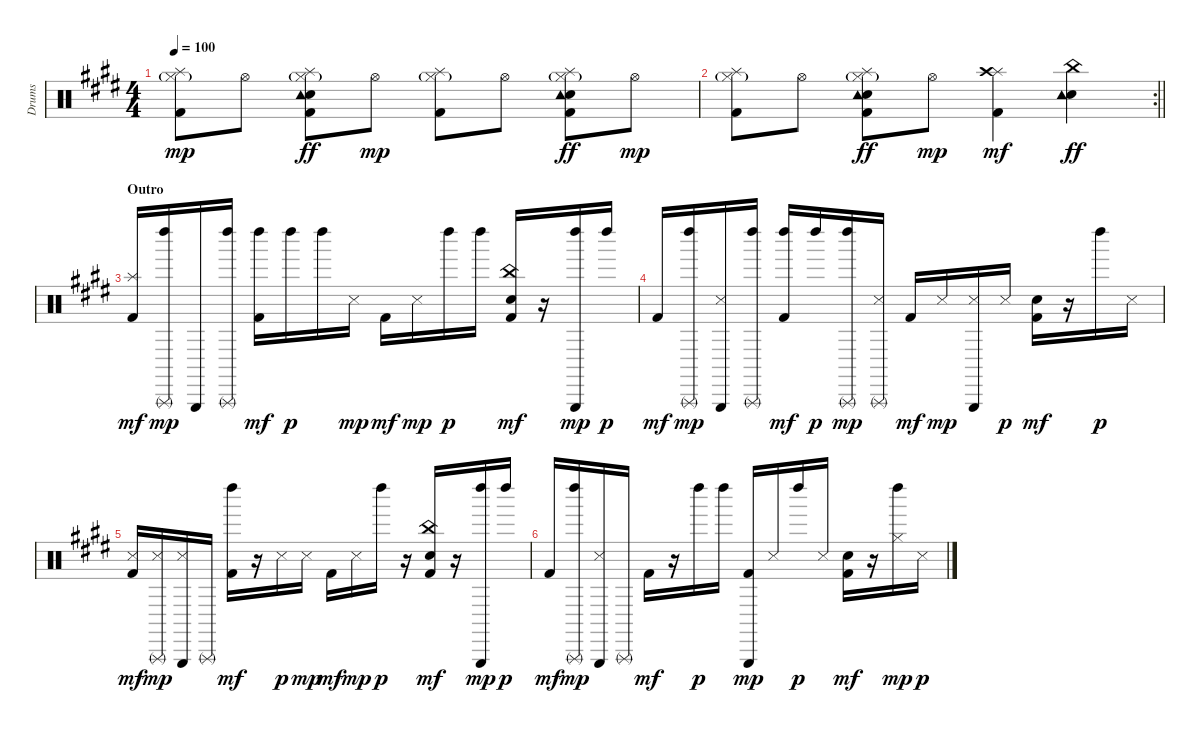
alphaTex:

\track ("Drums" "Drums") {instrument percussion}
\staff {score}
\articulation defaults
\ts (4 4)
\tempo 100
\clef neutral
\ks e
("Splash (hit)" "Hi-Hat (closed)"{g} "Kick (hit) 2").8{dy mp} "Hi-Hat (open)".8 ("Splash (hit)" "Hi-Hat (closed)"{g} "Hand Clap (hit)" "Kick (hit) 2" "Tambourine (hit)").8{dy ff} "Hi-Hat (open)".8{dy mp} ("Splash (hit)" "Hi-Hat (closed)"{g} "Kick (hit) 2").8 "Hi-Hat (open)".8 ("Splash (hit)" "Hi-Hat (closed)"{g} "Hand Clap (hit)" "Kick (hit) 2" "Tambourine (hit)").8{dy ff} "Hi-Hat (open)".8{dy mp} |
\rc 2
\barLineRight lightlight
("Splash (hit)" "Hi-Hat (closed)"{g} "Kick (hit) 2").8 "Hi-Hat (open)".8 ("Splash (hit)" "Hi-Hat (closed)"{g} "Hand Clap (hit)" "Kick (hit) 2" "Tambourine (hit)").8{dy ff} "Hi-Hat (open)".8{dy mp} ("Splash (hit)" "Crash high (hit)" "Kick (hit) 2").4{dy mf} ("China (hit)" "Hand Clap (hit)" "Tambourine (hit)").4{dy ff} |
\section ("" "Outro")
("Splash (hit)" "Kick (hit) 2").16{dy mf} ("Left Maraca (hit)" "Triangle (rnute)").16{dy mp} "Triangle (hit)".16 ("Left Maraca (hit)" "Triangle (rnute)").16 ("Left Maraca (hit)" "Kick (hit) 2").16{dy mf} "Left Maraca (hit)".16{dy p} "Left Maraca (hit)".16 "Metronome (hit)".16{dy mp} "Kick (hit) 2".16{dy mf} "Metronome (hit)".16{dy mp} "Left Maraca (hit)".16{dy p} "Left Maraca (hit)".16 ("China (hit)" "Hand Clap (hit)" "Kick (hit) 2").16{dy mf} r.16 ("Left Maraca (hit)" "Triangle (hit)").16{dy mp} "Left Maraca (hit)".16{dy p} |
"Kick (hit) 2".16{dy mf} ("Left Maraca (hit)" "Triangle (rnute)").16{dy mp} ("Metronome (hit)" "Triangle (hit)").16 ("Left Maraca (hit)" "Triangle (rnute)").16 ("Left Maraca (hit)" "Kick (hit) 2").16{dy mf} "Left Maraca (hit)".16{dy p} ("Left Maraca (hit)" "Triangle (rnute)").16{dy mp} ("Metronome (hit)" "Triangle (rnute)").16 "Kick (hit) 2".16{dy mf} "Metronome (hit)".16{dy mp} ("Metronome (hit)" "Triangle (hit)").16 "Metronome (hit)".16{dy p} ("Hand Clap (hit)" "Kick (hit) 2").16{dy mf} r.16 "Left Maraca (hit)".16{dy p} "Metronome (hit)".16 |
("Metronome (hit)" "Kick (hit) 2").16{dy mf} ("Metronome (hit)" "Triangle (rnute)").16{dy mp} ("Metronome (hit)" "Triangle (hit)").16 "Triangle (rnute)".16 ("Left Maraca (hit)" "Kick (hit) 2").16{dy mf} r.16 "Metronome (hit)".16{dy p} "Metronome (hit)".16{dy mp} "Kick (hit) 2".16{dy mf} "Metronome (hit)".16{dy mp} "Left Maraca (hit)".16{dy p} r.16 ("China (hit)" "Hand Clap (hit)" "Kick (hit) 2").16{dy mf} r.16 ("Left Maraca (hit)" "Triangle (hit)").16{dy mp} "Left Maraca (hit)".16{dy p} |
"Kick (hit) 2".16{dy mf} ("Left Maraca (hit)" "Triangle (rnute)").16{dy mp} ("Metronome (hit)" "Triangle (hit)").16 "Triangle (rnute)".16 "Kick (hit) 2".16{dy mf} r.16 "Left Maraca (hit)".16{dy p} "Left Maraca (hit)".16 ("Kick (hit) 2" "Triangle (hit)").16{dy mp} "Metronome (hit)".16 "Left Maraca (hit)".16{dy p} "Metronome (hit)".16 ("Hand Clap (hit)" "Kick (hit) 2").16{dy mf} r.16 ("Left Maraca (hit)" "Hi-Hat (closed)").16{dy mp} "Metronome (hit)".16{dy p}
